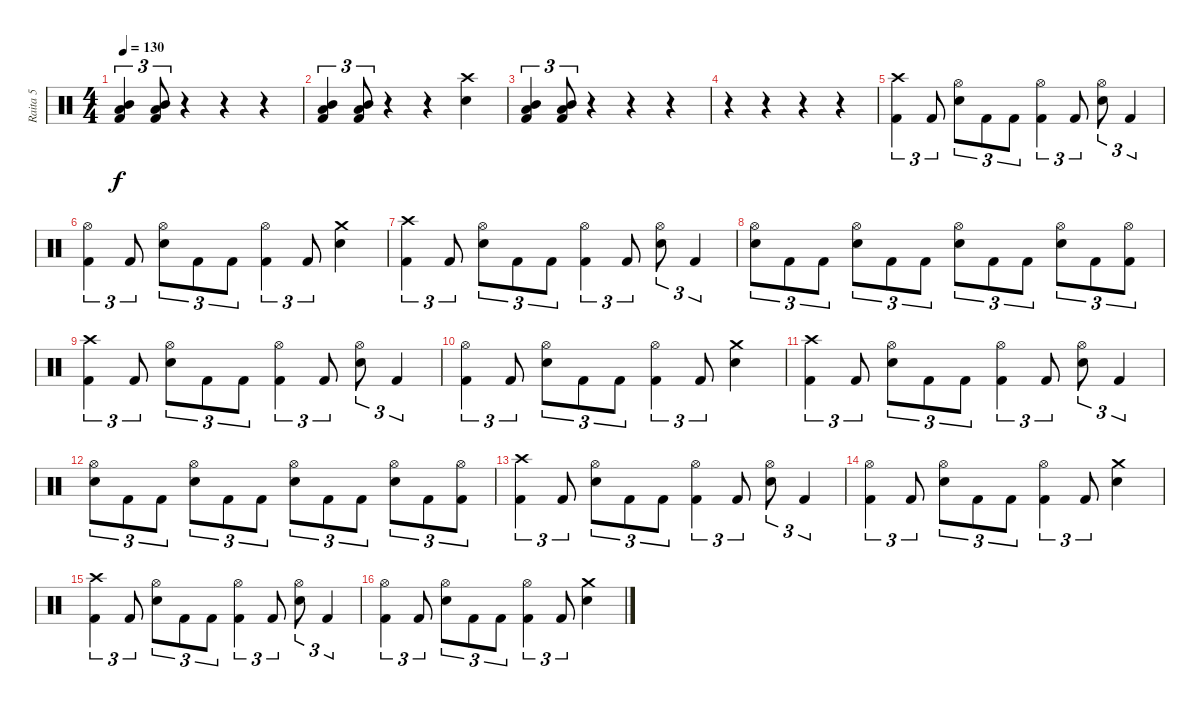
\track ("Raita 5" "Raita 5") {instrument percussion}
\staff {score}
\articulation defaults
\ts (4 4)
\tempo 130
\clef neutral
\ks c
("Mid Tom (hit)" "Low Tom (hit)" "Kick (hit) 2").4{tu (3 2) dy f} ("Mid Tom (hit)" "Low Tom (hit)" "Kick (hit) 2").8{tu (3 2)} r.4 r.4 r.4 |
("Mid Tom (hit)" "Low Tom (hit)" "Kick (hit) 2").4{tu (3 2)} ("Mid Tom (hit)" "Low Tom (hit)" "Kick (hit) 2").8{tu (3 2)} r.4 r.4 ("Crash high (hit)" "Snare (hit) 2").4 |
("Mid Tom (hit)" "Low Tom (hit)" "Kick (hit) 2").4{tu (3 2)} ("Mid Tom (hit)" "Low Tom (hit)" "Kick (hit) 2").8{tu (3 2)} r.4 r.4 r.4 |
r.4 r.4 r.4 r.4 |
("Crash high (hit)" "Kick (hit) 2").4{tu (3 2)} "Kick (hit) 2".8{tu (3 2)} ("Hi-Hat (open)" "Snare (hit) 2").8{tu (3 2)} "Kick (hit) 2".8{tu (3 2)} "Kick (hit) 2".8{tu (3 2)} ("Hi-Hat (open)" "Kick (hit) 2").4{tu (3 2)} "Kick (hit) 2".8{tu (3 2)} ("Hi-Hat (open)" "Snare (hit) 2").8{tu (3 2)} "Kick (hit) 2".4{tu (3 2)} |
("Hi-Hat (open)" "Kick (hit) 2").4{tu (3 2)} "Kick (hit) 2".8{tu (3 2)} ("Hi-Hat (open)" "Snare (hit) 2").8{tu (3 2)} "Kick (hit) 2".8{tu (3 2)} "Kick (hit) 2".8{tu (3 2)} ("Hi-Hat (open)" "Kick (hit) 2").4{tu (3 2)} "Kick (hit) 2".8{tu (3 2)} ("Crash medium (hit)" "Snare (hit) 2").4 |
("Crash high (hit)" "Kick (hit) 2").4{tu (3 2)} "Kick (hit) 2".8{tu (3 2)} ("Hi-Hat (open)" "Snare (hit) 2").8{tu (3 2)} "Kick (hit) 2".8{tu (3 2)} "Kick (hit) 2".8{tu (3 2)} ("Hi-Hat (open)" "Kick (hit) 2").4{tu (3 2)} "Kick (hit) 2".8{tu (3 2)} ("Hi-Hat (open)" "Snare (hit) 2").8{tu (3 2)} "Kick (hit) 2".4{tu (3 2)} |
("Hi-Hat (open)" "Snare (hit) 2").8{tu (3 2)} "Kick (hit) 2".8{tu (3 2)} "Kick (hit) 2".8{tu (3 2)} ("Hi-Hat (open)" "Snare (hit) 2").8{tu (3 2)} "Kick (hit) 2".8{tu (3 2)} "Kick (hit) 2".8{tu (3 2)} ("Hi-Hat (open)" "Snare (hit) 2").8{tu (3 2)} "Kick (hit) 2".8{tu (3 2)} "Kick (hit) 2".8{tu (3 2)} ("Hi-Hat (open)" "Snare (hit) 2").8{tu (3 2)} "Kick (hit) 2".8{tu (3 2)} ("Hi-Hat (open)" "Kick (hit) 2").8{tu (3 2)} |
("Crash high (hit)" "Kick (hit) 2").4{tu (3 2)} "Kick (hit) 2".8{tu (3 2)} ("Hi-Hat (open)" "Snare (hit) 2").8{tu (3 2)} "Kick (hit) 2".8{tu (3 2)} "Kick (hit) 2".8{tu (3 2)} ("Hi-Hat (open)" "Kick (hit) 2").4{tu (3 2)} "Kick (hit) 2".8{tu (3 2)} ("Hi-Hat (open)" "Snare (hit) 2").8{tu (3 2)} "Kick (hit) 2".4{tu (3 2)} |
("Hi-Hat (open)" "Kick (hit) 2").4{tu (3 2)} "Kick (hit) 2".8{tu (3 2)} ("Hi-Hat (open)" "Snare (hit) 2").8{tu (3 2)} "Kick (hit) 2".8{tu (3 2)} "Kick (hit) 2".8{tu (3 2)} ("Hi-Hat (open)" "Kick (hit) 2").4{tu (3 2)} "Kick (hit) 2".8{tu (3 2)} ("Crash medium (hit)" "Snare (hit) 2").4 |
("Crash high (hit)" "Kick (hit) 2").4{tu (3 2)} "Kick (hit) 2".8{tu (3 2)} ("Hi-Hat (open)" "Snare (hit) 2").8{tu (3 2)} "Kick (hit) 2".8{tu (3 2)} "Kick (hit) 2".8{tu (3 2)} ("Hi-Hat (open)" "Kick (hit) 2").4{tu (3 2)} "Kick (hit) 2".8{tu (3 2)} ("Hi-Hat (open)" "Snare (hit) 2").8{tu (3 2)} "Kick (hit) 2".4{tu (3 2)} |
("Hi-Hat (open)" "Snare (hit) 2").8{tu (3 2)} "Kick (hit) 2".8{tu (3 2)} "Kick (hit) 2".8{tu (3 2)} ("Hi-Hat (open)" "Snare (hit) 2").8{tu (3 2)} "Kick (hit) 2".8{tu (3 2)} "Kick (hit) 2".8{tu (3 2)} ("Hi-Hat (open)" "Snare (hit) 2").8{tu (3 2)} "Kick (hit) 2".8{tu (3 2)} "Kick (hit) 2".8{tu (3 2)} ("Hi-Hat (open)" "Snare (hit) 2").8{tu (3 2)} "Kick (hit) 2".8{tu (3 2)} ("Hi-Hat (open)" "Kick (hit) 2").8{tu (3 2)} |
("Crash high (hit)" "Kick (hit) 2").4{tu (3 2)} "Kick (hit) 2".8{tu (3 2)} ("Hi-Hat (open)" "Snare (hit) 2").8{tu (3 2)} "Kick (hit) 2".8{tu (3 2)} "Kick (hit) 2".8{tu (3 2)} ("Hi-Hat (open)" "Kick (hit) 2").4{tu (3 2)} "Kick (hit) 2".8{tu (3 2)} ("Hi-Hat (open)" "Snare (hit) 2").8{tu (3 2)} "Kick (hit) 2".4{tu (3 2)} |
("Hi-Hat (open)" "Kick (hit) 2").4{tu (3 2)} "Kick (hit) 2".8{tu (3 2)} ("Hi-Hat (open)" "Snare (hit) 2").8{tu (3 2)} "Kick (hit) 2".8{tu (3 2)} "Kick (hit) 2".8{tu (3 2)} ("Hi-Hat (open)" "Kick (hit) 2").4{tu (3 2)} "Kick (hit) 2".8{tu (3 2)} ("Crash medium (hit)" "Snare (hit) 2").4 |
("Crash high (hit)" "Kick (hit) 2").4{tu (3 2)} "Kick (hit) 2".8{tu (3 2)} ("Hi-Hat (open)" "Snare (hit) 2").8{tu (3 2)} "Kick (hit) 2".8{tu (3 2)} "Kick (hit) 2".8{tu (3 2)} ("Hi-Hat (open)" "Kick (hit) 2").4{tu (3 2)} "Kick (hit) 2".8{tu (3 2)} ("Hi-Hat (open)" "Snare (hit) 2").8{tu (3 2)} "Kick (hit) 2".4{tu (3 2)} |
("Hi-Hat (open)" "Kick (hit) 2").4{tu (3 2)} "Kick (hit) 2".8{tu (3 2)} ("Hi-Hat (open)" "Snare (hit) 2").8{tu (3 2)} "Kick (hit) 2".8{tu (3 2)} "Kick (hit) 2".8{tu (3 2)} ("Hi-Hat (open)" "Kick (hit) 2").4{tu (3 2)} "Kick (hit) 2".8{tu (3 2)} ("Crash medium (hit)" "Snare (hit) 2").4
